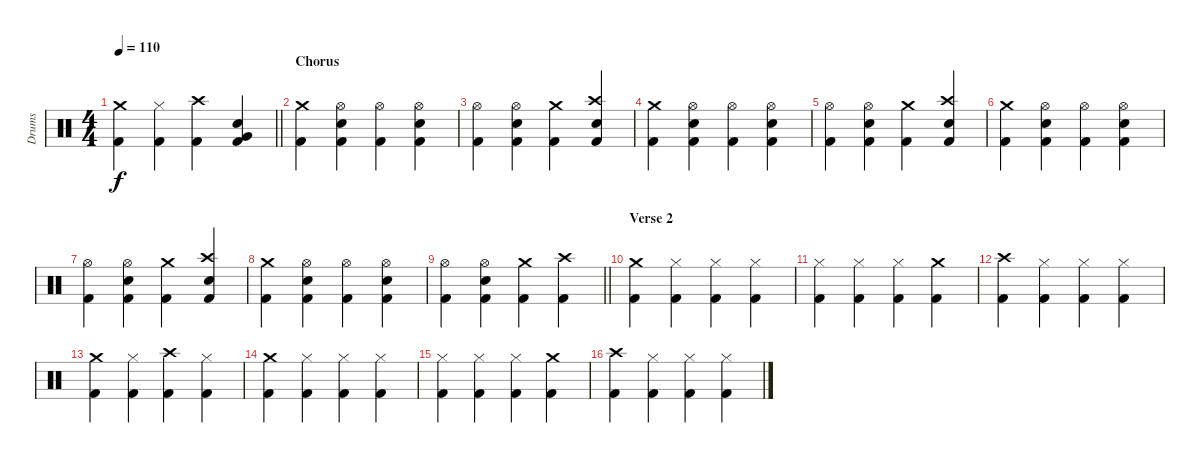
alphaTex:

\track ("Drums" "Drums") {instrument percussion}
\staff {score}
\articulation defaults
\ts (4 4)
\tempo 110
\clef neutral
\barLineRight lightlight
\ks c
("Crash medium (hit)" "Kick (hit) 2").4{dy f} ("Hi-Hat (closed)" "Kick (hit) 2").4 ("Crash high (hit)" "Kick (hit) 2").4 ("Very Low Tom (hit)" "Electric Snare (hit)" "Kick (hit) 2").4 |
\section ("" "Chorus")
("Crash medium (hit)" "Kick (hit) 2").4 ("Hi-Hat (open)" "Electric Snare (hit)" "Kick (hit) 2").4 ("Hi-Hat (open)" "Kick (hit) 2").4 ("Hi-Hat (open)" "Electric Snare (hit)" "Kick (hit) 2").4 |
("Hi-Hat (open)" "Kick (hit) 2").4 ("Hi-Hat (open)" "Electric Snare (hit)" "Kick (hit) 2").4 ("Crash medium (hit)" "Kick (hit) 2").4 ("Crash high (hit)" "Electric Snare (hit)" "Kick (hit) 2").4 |
("Crash medium (hit)" "Kick (hit) 2").4 ("Hi-Hat (open)" "Electric Snare (hit)" "Kick (hit) 2").4 ("Hi-Hat (open)" "Kick (hit) 2").4 ("Hi-Hat (open)" "Electric Snare (hit)" "Kick (hit) 2").4 |
("Hi-Hat (open)" "Kick (hit) 2").4 ("Hi-Hat (open)" "Electric Snare (hit)" "Kick (hit) 2").4 ("Crash medium (hit)" "Kick (hit) 2").4 ("Crash high (hit)" "Electric Snare (hit)" "Kick (hit) 2").4 |
("Crash medium (hit)" "Kick (hit) 2").4 ("Hi-Hat (open)" "Electric Snare (hit)" "Kick (hit) 2").4 ("Hi-Hat (open)" "Kick (hit) 2").4 ("Hi-Hat (open)" "Electric Snare (hit)" "Kick (hit) 2").4 |
("Hi-Hat (open)" "Kick (hit) 2").4 ("Hi-Hat (open)" "Electric Snare (hit)" "Kick (hit) 2").4 ("Crash medium (hit)" "Kick (hit) 2").4 ("Crash high (hit)" "Electric Snare (hit)" "Kick (hit) 2").4 |
("Crash medium (hit)" "Kick (hit) 2").4 ("Hi-Hat (open)" "Electric Snare (hit)" "Kick (hit) 2").4 ("Hi-Hat (open)" "Kick (hit) 2").4 ("Hi-Hat (open)" "Electric Snare (hit)" "Kick (hit) 2").4 |
\barLineRight lightlight
("Hi-Hat (open)" "Kick (hit) 2").4 ("Hi-Hat (open)" "Electric Snare (hit)" "Kick (hit) 2").4 ("Crash medium (hit)" "Kick (hit) 2").4 ("Crash high (hit)" "Kick (hit) 2").4 |
\section ("" "Verse 2 ")
("Crash medium (hit)" "Kick (hit) 2").4 ("Hi-Hat (closed)" "Kick (hit) 2").4 ("Hi-Hat (closed)" "Kick (hit) 2").4 ("Hi-Hat (closed)" "Kick (hit) 2").4 |
("Hi-Hat (closed)" "Kick (hit) 2").4 ("Hi-Hat (closed)" "Kick (hit) 2").4 ("Hi-Hat (closed)" "Kick (hit) 2").4 ("Crash medium (hit)" "Kick (hit) 2").4 |
("Crash high (hit)" "Kick (hit) 2").4 ("Hi-Hat (closed)" "Kick (hit) 2").4 ("Hi-Hat (closed)" "Kick (hit) 2").4 ("Hi-Hat (closed)" "Kick (hit) 2").4 |
("Crash medium (hit)" "Kick (hit) 2").4 ("Hi-Hat (closed)" "Kick (hit) 2").4 ("Crash high (hit)" "Kick (hit) 2").4 ("Hi-Hat (closed)" "Kick (hit) 2").4 |
("Crash medium (hit)" "Kick (hit) 2").4 ("Hi-Hat (closed)" "Kick (hit) 2").4 ("Hi-Hat (closed)" "Kick (hit) 2").4 ("Hi-Hat (closed)" "Kick (hit) 2").4 |
("Hi-Hat (closed)" "Kick (hit) 2").4 ("Hi-Hat (closed)" "Kick (hit) 2").4 ("Hi-Hat (closed)" "Kick (hit) 2").4 ("Crash medium (hit)" "Kick (hit) 2").4 |
("Crash high (hit)" "Kick (hit) 2").4 ("Hi-Hat (closed)" "Kick (hit) 2").4 ("Hi-Hat (closed)" "Kick (hit) 2").4 ("Hi-Hat (closed)" "Kick (hit) 2").4
